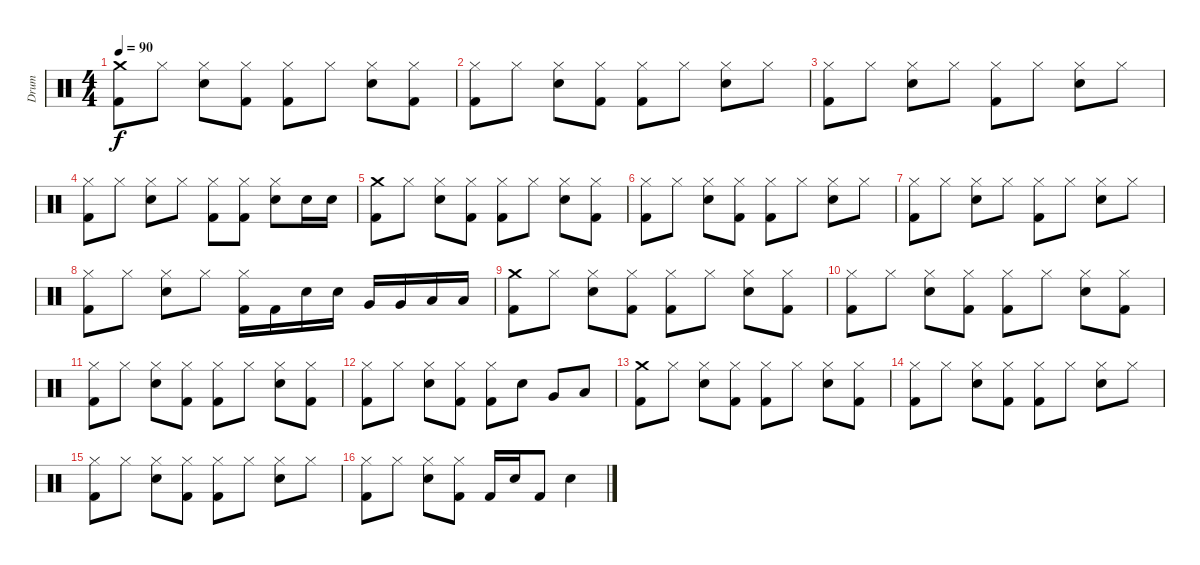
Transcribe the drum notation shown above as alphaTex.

\track ("Drum" "Drum") {instrument percussion}
\staff {score}
\articulation defaults
\ts (4 4)
\tempo 90
\clef neutral
\ks c
("Crash medium (hit)" "Kick (hit) 2").8{dy f} "Hi-Hat (closed)".8 ("Hi-Hat (closed)" "Snare (hit) 2").8 ("Hi-Hat (closed)" "Kick (hit) 2").8 ("Hi-Hat (closed)" "Kick (hit) 2").8 "Hi-Hat (closed)".8 ("Hi-Hat (closed)" "Snare (hit) 2").8 ("Hi-Hat (closed)" "Kick (hit) 2").8 |
("Hi-Hat (closed)" "Kick (hit) 2").8 "Hi-Hat (closed)".8 ("Hi-Hat (closed)" "Snare (hit) 2").8 ("Hi-Hat (closed)" "Kick (hit) 2").8 ("Hi-Hat (closed)" "Kick (hit) 2").8 "Hi-Hat (closed)".8 ("Hi-Hat (closed)" "Snare (hit) 2").8 "Hi-Hat (closed)".8 |
("Hi-Hat (closed)" "Kick (hit) 2").8 "Hi-Hat (closed)".8 ("Hi-Hat (closed)" "Snare (hit) 2").8 "Hi-Hat (closed)".8 ("Hi-Hat (closed)" "Kick (hit) 2").8 "Hi-Hat (closed)".8 ("Hi-Hat (closed)" "Snare (hit) 2").8 "Hi-Hat (closed)".8 |
("Hi-Hat (closed)" "Kick (hit) 2").8 "Hi-Hat (closed)".8 ("Hi-Hat (closed)" "Snare (hit) 2").8 "Hi-Hat (closed)".8 ("Hi-Hat (closed)" "Kick (hit) 2").8 ("Hi-Hat (closed)" "Kick (hit) 2").8 ("Hi-Hat (closed)" "Snare (hit) 2").8 "Snare (hit) 2".16 "Snare (hit) 2".16 |
("Crash medium (hit)" "Kick (hit) 2").8 "Hi-Hat (closed)".8 ("Hi-Hat (closed)" "Snare (hit) 2").8 ("Hi-Hat (closed)" "Kick (hit) 2").8 ("Hi-Hat (closed)" "Kick (hit) 2").8 "Hi-Hat (closed)".8 ("Hi-Hat (closed)" "Snare (hit) 2").8 ("Hi-Hat (closed)" "Kick (hit) 2").8 |
("Hi-Hat (closed)" "Kick (hit) 2").8 "Hi-Hat (closed)".8 ("Hi-Hat (closed)" "Snare (hit) 2").8 ("Hi-Hat (closed)" "Kick (hit) 2").8 ("Hi-Hat (closed)" "Kick (hit) 2").8 "Hi-Hat (closed)".8 ("Hi-Hat (closed)" "Snare (hit) 2").8 "Hi-Hat (closed)".8 |
("Hi-Hat (closed)" "Kick (hit) 2").8 "Hi-Hat (closed)".8 ("Hi-Hat (closed)" "Snare (hit) 2").8 "Hi-Hat (closed)".8 ("Hi-Hat (closed)" "Kick (hit) 2").8 "Hi-Hat (closed)".8 ("Hi-Hat (closed)" "Snare (hit) 2").8 "Hi-Hat (closed)".8 |
("Hi-Hat (closed)" "Kick (hit) 2").8 "Hi-Hat (closed)".8 ("Hi-Hat (closed)" "Snare (hit) 2").8 "Hi-Hat (closed)".8 ("Hi-Hat (closed)" "Kick (hit) 2").16 "Kick (hit) 2".16 "Snare (hit) 2".16 "Snare (hit) 2".16 "Very Low Tom (hit)".16 "Very Low Tom (hit)".16 "Low Floor Tom (hit)".16 "Low Floor Tom (hit)".16 |
("Crash medium (hit)" "Kick (hit) 2").8 "Hi-Hat (closed)".8 ("Hi-Hat (closed)" "Snare (hit) 2").8 ("Hi-Hat (closed)" "Kick (hit) 2").8 ("Hi-Hat (closed)" "Kick (hit) 2").8 "Hi-Hat (closed)".8 ("Hi-Hat (closed)" "Snare (hit) 2").8 ("Hi-Hat (closed)" "Kick (hit) 2").8 |
("Hi-Hat (closed)" "Kick (hit) 2").8 "Hi-Hat (closed)".8 ("Hi-Hat (closed)" "Snare (hit) 2").8 ("Hi-Hat (closed)" "Kick (hit) 2").8 ("Hi-Hat (closed)" "Kick (hit) 2").8 "Hi-Hat (closed)".8 ("Hi-Hat (closed)" "Snare (hit) 2").8 ("Hi-Hat (closed)" "Kick (hit) 2").8 |
("Hi-Hat (closed)" "Kick (hit) 2").8 "Hi-Hat (closed)".8 ("Hi-Hat (closed)" "Snare (hit) 2").8 ("Hi-Hat (closed)" "Kick (hit) 2").8 ("Hi-Hat (closed)" "Kick (hit) 2").8 "Hi-Hat (closed)".8 ("Hi-Hat (closed)" "Snare (hit) 2").8 ("Hi-Hat (closed)" "Kick (hit) 2").8 |
("Hi-Hat (closed)" "Kick (hit) 2").8 "Hi-Hat (closed)".8 ("Hi-Hat (closed)" "Snare (hit) 2").8 ("Hi-Hat (closed)" "Kick (hit) 2").8 ("Hi-Hat (closed)" "Kick (hit) 2").8 "Snare (hit) 2".8 "Very Low Tom (hit)".8 "Low Floor Tom (hit)".8 |
("Crash medium (hit)" "Kick (hit) 2").8 "Hi-Hat (closed)".8 ("Hi-Hat (closed)" "Snare (hit) 2").8 ("Hi-Hat (closed)" "Kick (hit) 2").8 ("Hi-Hat (closed)" "Kick (hit) 2").8 "Hi-Hat (closed)".8 ("Hi-Hat (closed)" "Snare (hit) 2").8 ("Hi-Hat (closed)" "Kick (hit) 2").8 |
("Hi-Hat (closed)" "Kick (hit) 2").8 "Hi-Hat (closed)".8 ("Hi-Hat (closed)" "Snare (hit) 2").8 ("Hi-Hat (closed)" "Kick (hit) 2").8 ("Hi-Hat (closed)" "Kick (hit) 2").8 "Hi-Hat (closed)".8 ("Hi-Hat (closed)" "Snare (hit) 2").8 "Hi-Hat (closed)".8 |
("Hi-Hat (closed)" "Kick (hit) 2").8 "Hi-Hat (closed)".8 ("Hi-Hat (closed)" "Snare (hit) 2").8 ("Hi-Hat (closed)" "Kick (hit) 2").8 ("Hi-Hat (closed)" "Kick (hit) 2").8 "Hi-Hat (closed)".8 ("Hi-Hat (closed)" "Snare (hit) 2").8 "Hi-Hat (closed)".8 |
("Hi-Hat (closed)" "Kick (hit) 2").8 "Hi-Hat (closed)".8 ("Hi-Hat (closed)" "Snare (hit) 2").8 ("Hi-Hat (closed)" "Kick (hit) 2").8 "Kick (hit) 2".16 "Snare (hit) 2".16 "Kick (hit) 2".8 "Snare (hit) 2".4
